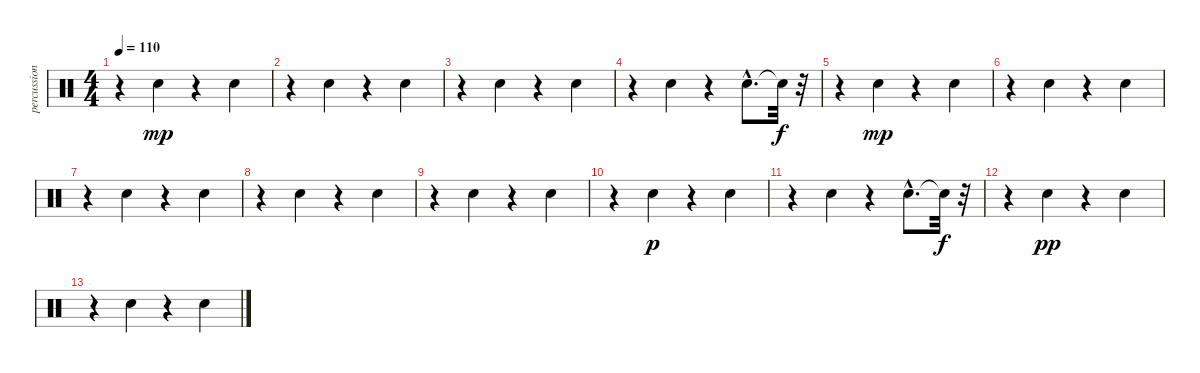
\track ("percussions 3" "percussion") {instrument percussion}
\staff {score}
\articulation defaults
\ts (4 4)
\tempo 110
\clef neutral
\ks c
r.4{dy f} "Electric Snare (hit)".4{dy mp} r.4 "Electric Snare (hit)".4 |
r.4 "Electric Snare (hit)".4 r.4 "Electric Snare (hit)".4 |
r.4 "Electric Snare (hit)".4 r.4 "Electric Snare (hit)".4 |
r.4 "Electric Snare (hit)".4 r.4 "Electric Snare (hit)"{hac}.8{d} "Snare (hit)"{t}.32{dy f} r.32 |
r.4 "Electric Snare (hit)".4{dy mp} r.4 "Electric Snare (hit)".4 |
r.4 "Electric Snare (hit)".4 r.4 "Electric Snare (hit)".4 |
r.4 "Electric Snare (hit)".4 r.4 "Electric Snare (hit)".4 |
r.4 "Electric Snare (hit)".4 r.4 "Electric Snare (hit)".4 |
r.4 "Electric Snare (hit)".4 r.4 "Electric Snare (hit)".4 |
r.4 "Electric Snare (hit)".4{dy p} r.4 "Electric Snare (hit)".4 |
r.4 "Electric Snare (hit)".4 r.4 "Electric Snare (hit)"{hac}.8{d} "Snare (hit)"{t}.32{dy f} r.32 |
r.4 "Electric Snare (hit)".4{dy pp} r.4 "Electric Snare (hit)".4 |
r.4 "Electric Snare (hit)".4 r.4 "Electric Snare (hit)".4
